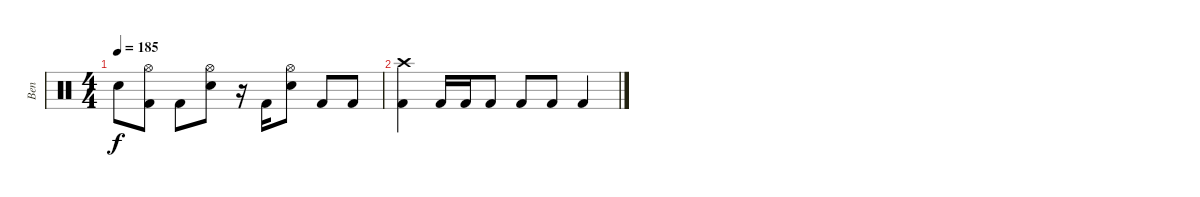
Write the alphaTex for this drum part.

\track ("Ben" "Ben") {instrument percussion}
\staff {score}
\articulation defaults
\ts (4 4)
\tempo 185
\clef neutral
\ks c "Electric Snare (hit)".8{dy f}
("Hi-Hat (open)" "Kick (hit) 2").8 "Kick (hit) 2".8 ("Hi-Hat (open)" "Electric Snare (hit)").8 r.16 "Kick (hit) 2".16 ("Hi-Hat (open)" "Electric Snare (hit)").8 "Kick (hit) 2".8 "Kick (hit) 2".8 |
("Crash high (hit)" "Kick (hit) 2").4 "Kick (hit) 2".16 "Kick (hit) 2".16 "Kick (hit) 2".8 "Kick (hit) 2".8 "Kick (hit) 2".8 "Kick (hit) 2".4
